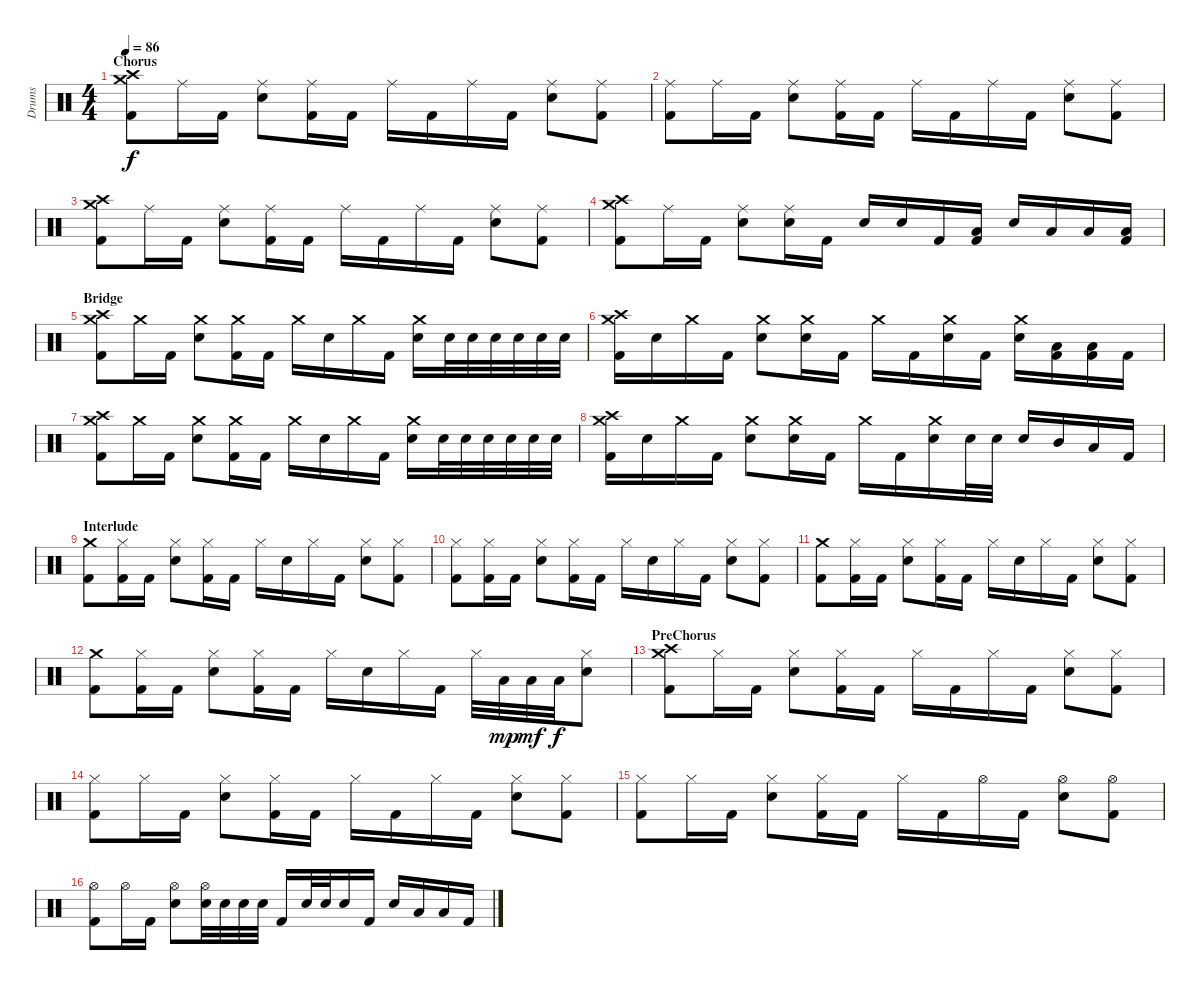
\track ("Drums" "Drums") {instrument percussion}
\staff {score}
\articulation defaults
\ts (4 4)
\section ("" "Chorus")
\tempo 86
\clef neutral
\ks c
("Crash high (hit)" "Crash medium (hit)" "Kick (hit) 2").8{dy f} "Ride (middle)".16 "Kick (hit) 2".16 ("Ride (middle)" "Snare (hit) 2").8 ("Ride (middle)" "Kick (hit) 2").16 "Kick (hit) 2".16 "Ride (middle)".16 "Kick (hit) 2".16 "Ride (middle)".16 "Kick (hit) 2".16 ("Ride (middle)" "Snare (hit) 2").8 ("Ride (middle)" "Kick (hit) 2").8 |
("Ride (middle)" "Kick (hit) 2").8 "Ride (middle)".16 "Kick (hit) 2".16 ("Ride (middle)" "Snare (hit) 2").8 ("Ride (middle)" "Kick (hit) 2").16 "Kick (hit) 2".16 "Ride (middle)".16 "Kick (hit) 2".16 "Ride (middle)".16 "Kick (hit) 2".16 ("Ride (middle)" "Snare (hit) 2").8 ("Ride (middle)" "Kick (hit) 2").8 |
("Crash high (hit)" "Crash medium (hit)" "Kick (hit) 2").8 "Ride (middle)".16 "Kick (hit) 2".16 ("Ride (middle)" "Snare (hit) 2").8 ("Ride (middle)" "Kick (hit) 2").16 "Kick (hit) 2".16 "Ride (middle)".16 "Kick (hit) 2".16 "Ride (middle)".16 "Kick (hit) 2".16 ("Ride (middle)" "Snare (hit) 2").8 ("Ride (middle)" "Kick (hit) 2").8 |
("Crash high (hit)" "Crash medium (hit)" "Kick (hit) 2").8 "Ride (middle)".16 "Kick (hit) 2".16 ("Ride (middle)" "Snare (hit) 2").8 ("Ride (middle)" "Snare (hit) 2").16 "Kick (hit) 2".16 "Snare (hit) 2".16 "Snare (hit) 2".16 "Kick (hit) 2".16 ("Low Floor Tom (hit)" "Kick (hit) 2").16 "Snare (hit) 2".16 "Low Tom (hit)".16 "Low Floor Tom (hit)".16 ("Low Floor Tom (hit)" "Kick (hit) 2").16 |
\section ("" "Bridge")
("Crash high (hit)" "Crash medium (hit)" "Kick (hit) 2").8 "Crash medium (hit)".16 "Kick (hit) 2".16 ("Crash medium (hit)" "Snare (hit) 2").8 ("Crash medium (hit)" "Kick (hit) 2").16 "Kick (hit) 2".16 "Crash medium (hit)".16 "Snare (hit) 2".16 "Crash medium (hit)".16 "Kick (hit) 2".16 ("Crash medium (hit)" "Snare (hit) 2").16 "Snare (hit) 2".32 "Snare (hit) 2".32 "Snare (hit) 2".32 "Snare (hit) 2".32 "Snare (hit) 2".32 "Snare (hit) 2".32 |
("Crash high (hit)" "Crash medium (hit)" "Kick (hit) 2").16 "Snare (hit) 2".16 "Crash medium (hit)".16 "Kick (hit) 2".16 ("Crash medium (hit)" "Snare (hit) 2").8 ("Crash medium (hit)" "Snare (hit) 2").16 "Kick (hit) 2".16 "Crash medium (hit)".16 "Kick (hit) 2".16 ("Crash medium (hit)" "Snare (hit) 2").16 "Kick (hit) 2".16 ("Crash medium (hit)" "Snare (hit) 2").16 ("Low Floor Tom (hit)" "Kick (hit) 2").16 ("Low Floor Tom (hit)" "Kick (hit) 2").16 "Kick (hit) 2".16 |
("Crash high (hit)" "Crash medium (hit)" "Kick (hit) 2").8 "Crash medium (hit)".16 "Kick (hit) 2".16 ("Crash medium (hit)" "Snare (hit) 2").8 ("Crash medium (hit)" "Kick (hit) 2").16 "Kick (hit) 2".16 "Crash medium (hit)".16 "Snare (hit) 2".16 "Crash medium (hit)".16 "Kick (hit) 2".16 ("Crash medium (hit)" "Snare (hit) 2").16 "Snare (hit) 2".32 "Snare (hit) 2".32 "Snare (hit) 2".32 "Snare (hit) 2".32 "Snare (hit) 2".32 "Snare (hit) 2".32 |
("Crash high (hit)" "Crash medium (hit)" "Kick (hit) 2").16 "Snare (hit) 2".16 "Crash medium (hit)".16 "Kick (hit) 2".16 ("Crash medium (hit)" "Snare (hit) 2").8 ("Crash medium (hit)" "Snare (hit) 2").16 "Kick (hit) 2".16 "Crash medium (hit)".16 "Kick (hit) 2".16 ("Crash medium (hit)" "Snare (hit) 2").16 "Snare (hit) 2".32 "Snare (hit) 2".32 "Snare (hit) 2".16 "Mid Tom (hit)".16 "Low Floor Tom (hit)".16 "Kick (hit) 2".16 |
\section ("" "Interlude")
("Crash medium (hit)" "Kick (hit) 2").8 ("Hi-Hat (closed)" "Kick (hit) 2").16 "Kick (hit) 2".16 ("Hi-Hat (closed)" "Snare (hit) 2").8 ("Hi-Hat (closed)" "Kick (hit) 2").16 "Kick (hit) 2".16 "Hi-Hat (closed)".16 "Snare (hit) 2".16 "Hi-Hat (closed)".16 "Kick (hit) 2".16 ("Hi-Hat (closed)" "Snare (hit) 2").8 ("Hi-Hat (closed)" "Kick (hit) 2").8 |
("Hi-Hat (closed)" "Kick (hit) 2").8 ("Hi-Hat (closed)" "Kick (hit) 2").16 "Kick (hit) 2".16 ("Hi-Hat (closed)" "Snare (hit) 2").8 ("Hi-Hat (closed)" "Kick (hit) 2").16 "Kick (hit) 2".16 "Hi-Hat (closed)".16 "Snare (hit) 2".16 "Hi-Hat (closed)".16 "Kick (hit) 2".16 ("Hi-Hat (closed)" "Snare (hit) 2").8 ("Hi-Hat (closed)" "Kick (hit) 2").8 |
("Crash medium (hit)" "Kick (hit) 2").8 ("Hi-Hat (closed)" "Kick (hit) 2").16 "Kick (hit) 2".16 ("Hi-Hat (closed)" "Snare (hit) 2").8 ("Hi-Hat (closed)" "Kick (hit) 2").16 "Kick (hit) 2".16 "Hi-Hat (closed)".16 "Snare (hit) 2".16 "Hi-Hat (closed)".16 "Kick (hit) 2".16 ("Hi-Hat (closed)" "Snare (hit) 2").8 ("Hi-Hat (closed)" "Kick (hit) 2").8 |
("Crash medium (hit)" "Kick (hit) 2").8 ("Hi-Hat (closed)" "Kick (hit) 2").16 "Kick (hit) 2".16 ("Hi-Hat (closed)" "Snare (hit) 2").8 ("Hi-Hat (closed)" "Kick (hit) 2").16 "Kick (hit) 2".16 "Hi-Hat (closed)".16 "Snare (hit) 2".16 "Hi-Hat (closed)".16 "Kick (hit) 2".16 "Hi-Hat (closed)".32 "Low Floor Tom (hit)".32{dy mp} "Low Floor Tom (hit)".32{dy mf} "Low Floor Tom (hit)".32{dy f} ("Hi-Hat (closed)" "Snare (hit) 2").8 |
\section ("" "PreChorus")
("Crash high (hit)" "Crash medium (hit)" "Kick (hit) 2").8 "Hi-Hat (closed)".16 "Kick (hit) 2".16 ("Hi-Hat (closed)" "Snare (hit) 2").8 ("Hi-Hat (closed)" "Kick (hit) 2").16 "Kick (hit) 2".16 "Hi-Hat (closed)".16 "Kick (hit) 2".16 "Hi-Hat (closed)".16 "Kick (hit) 2".16 ("Hi-Hat (closed)" "Snare (hit) 2").8 ("Hi-Hat (closed)" "Kick (hit) 2").8 |
("Hi-Hat (closed)" "Kick (hit) 2").8 "Hi-Hat (closed)".16 "Kick (hit) 2".16 ("Hi-Hat (closed)" "Snare (hit) 2").8 ("Hi-Hat (closed)" "Kick (hit) 2").16 "Kick (hit) 2".16 "Hi-Hat (closed)".16 "Kick (hit) 2".16 "Hi-Hat (closed)".16 "Kick (hit) 2".16 ("Hi-Hat (closed)" "Snare (hit) 2").8 ("Hi-Hat (closed)" "Kick (hit) 2").8 |
("Hi-Hat (closed)" "Kick (hit) 2").8 "Hi-Hat (closed)".16 "Kick (hit) 2".16 ("Hi-Hat (closed)" "Snare (hit) 2").8 ("Hi-Hat (closed)" "Kick (hit) 2").16 "Kick (hit) 2".16 "Hi-Hat (closed)".16 "Kick (hit) 2".16 "Hi-Hat (open)".16 "Kick (hit) 2".16 ("Hi-Hat (open)" "Snare (hit) 2").8 ("Hi-Hat (open)" "Kick (hit) 2").8 |
("Hi-Hat (open)" "Kick (hit) 2").8 "Hi-Hat (open)".16 "Kick (hit) 2".16 ("Hi-Hat (open)" "Snare (hit) 2").8 ("Hi-Hat (open)" "Snare (hit) 2").32 "Snare (hit) 2".32 "Snare (hit) 2".32 "Snare (hit) 2".32 "Kick (hit) 2".16 "Snare (hit) 2".32 "Snare (hit) 2".32 "Snare (hit) 2".16 "Kick (hit) 2".16 "Snare (hit) 2".16 "Low Tom (hit)".16 "Low Floor Tom (hit)".16 "Kick (hit) 2".16
